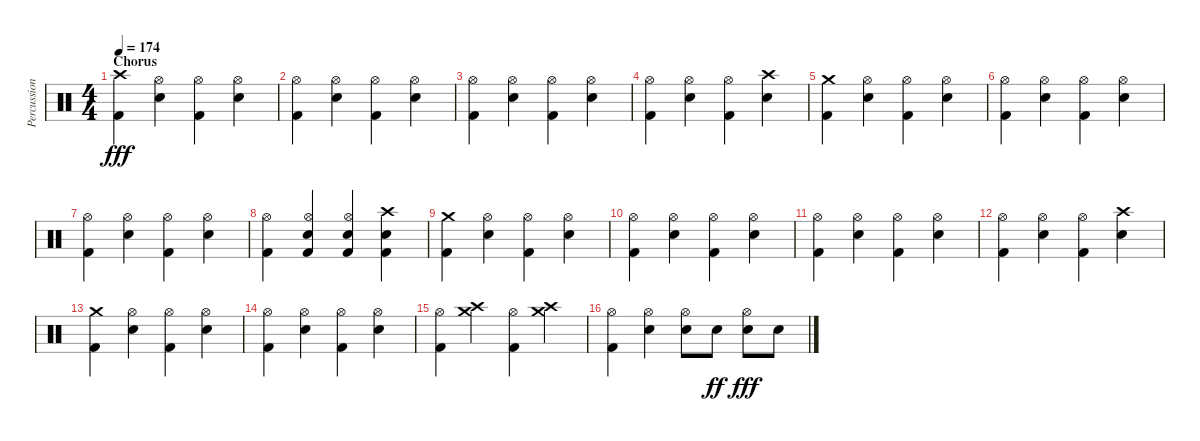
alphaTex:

\track ("Percussion" "Percussion") {instrument percussion}
\staff {score}
\articulation defaults
\ts (4 4)
\section ("" "Chorus")
\tempo 174
\clef neutral
\ks c
("Crash high (hit)" "Kick (hit) 2").4{dy fff} ("Hi-Hat (open)" "Electric Snare (hit)").4 ("Hi-Hat (open)" "Kick (hit) 2").4 ("Hi-Hat (open)" "Electric Snare (hit)").4 |
("Hi-Hat (open)" "Kick (hit) 2").4 ("Hi-Hat (open)" "Electric Snare (hit)").4 ("Hi-Hat (open)" "Kick (hit) 2").4 ("Hi-Hat (open)" "Electric Snare (hit)").4 |
("Hi-Hat (open)" "Kick (hit) 2").4 ("Hi-Hat (open)" "Electric Snare (hit)").4 ("Hi-Hat (open)" "Kick (hit) 2").4 ("Hi-Hat (open)" "Electric Snare (hit)").4 |
("Hi-Hat (open)" "Kick (hit) 2").4 ("Hi-Hat (open)" "Electric Snare (hit)").4 ("Hi-Hat (open)" "Kick (hit) 2").4 ("Crash high (hit)" "Electric Snare (hit)").4 |
("Crash medium (hit)" "Kick (hit) 2").4 ("Hi-Hat (open)" "Electric Snare (hit)").4 ("Hi-Hat (open)" "Kick (hit) 2").4 ("Hi-Hat (open)" "Electric Snare (hit)").4 |
("Hi-Hat (open)" "Kick (hit) 2").4 ("Hi-Hat (open)" "Electric Snare (hit)").4 ("Hi-Hat (open)" "Kick (hit) 2").4 ("Hi-Hat (open)" "Electric Snare (hit)").4 |
("Hi-Hat (open)" "Kick (hit) 2").4 ("Hi-Hat (open)" "Electric Snare (hit)").4 ("Hi-Hat (open)" "Kick (hit) 2").4 ("Hi-Hat (open)" "Electric Snare (hit)").4 |
("Hi-Hat (open)" "Kick (hit) 2").4 ("Hi-Hat (open)" "Electric Snare (hit)" "Kick (hit) 2").4 ("Hi-Hat (open)" "Electric Snare (hit)" "Kick (hit) 2").4 ("Crash high (hit)" "Electric Snare (hit)" "Kick (hit) 2").4 |
("Crash medium (hit)" "Kick (hit) 2").4 ("Hi-Hat (open)" "Electric Snare (hit)").4 ("Hi-Hat (open)" "Kick (hit) 2").4 ("Hi-Hat (open)" "Electric Snare (hit)").4 |
("Hi-Hat (open)" "Kick (hit) 2").4 ("Hi-Hat (open)" "Electric Snare (hit)").4 ("Hi-Hat (open)" "Kick (hit) 2").4 ("Hi-Hat (open)" "Electric Snare (hit)").4 |
("Hi-Hat (open)" "Kick (hit) 2").4 ("Hi-Hat (open)" "Electric Snare (hit)").4 ("Hi-Hat (open)" "Kick (hit) 2").4 ("Hi-Hat (open)" "Electric Snare (hit)").4 |
("Hi-Hat (open)" "Kick (hit) 2").4 ("Hi-Hat (open)" "Electric Snare (hit)").4 ("Hi-Hat (open)" "Kick (hit) 2").4 ("Crash high (hit)" "Electric Snare (hit)").4 |
("Crash medium (hit)" "Kick (hit) 2").4 ("Hi-Hat (open)" "Electric Snare (hit)").4 ("Hi-Hat (open)" "Kick (hit) 2").4 ("Hi-Hat (open)" "Electric Snare (hit)").4 |
("Hi-Hat (open)" "Kick (hit) 2").4 ("Hi-Hat (open)" "Electric Snare (hit)").4 ("Hi-Hat (open)" "Kick (hit) 2").4 ("Hi-Hat (open)" "Electric Snare (hit)").4 |
("Hi-Hat (open)" "Kick (hit) 2").4 ("Crash high (hit)" "Crash medium (hit)").4 ("Hi-Hat (open)" "Kick (hit) 2").4 ("Crash high (hit)" "Crash medium (hit)").4 |
("Hi-Hat (open)" "Kick (hit) 2").4 ("Hi-Hat (open)" "Snare (hit) 2").4 ("Hi-Hat (open)" "Snare (hit) 2").8 "Snare (hit) 2".8{dy ff} ("Hi-Hat (open)" "Snare (hit) 2").8{dy fff} "Snare (hit) 2".8
